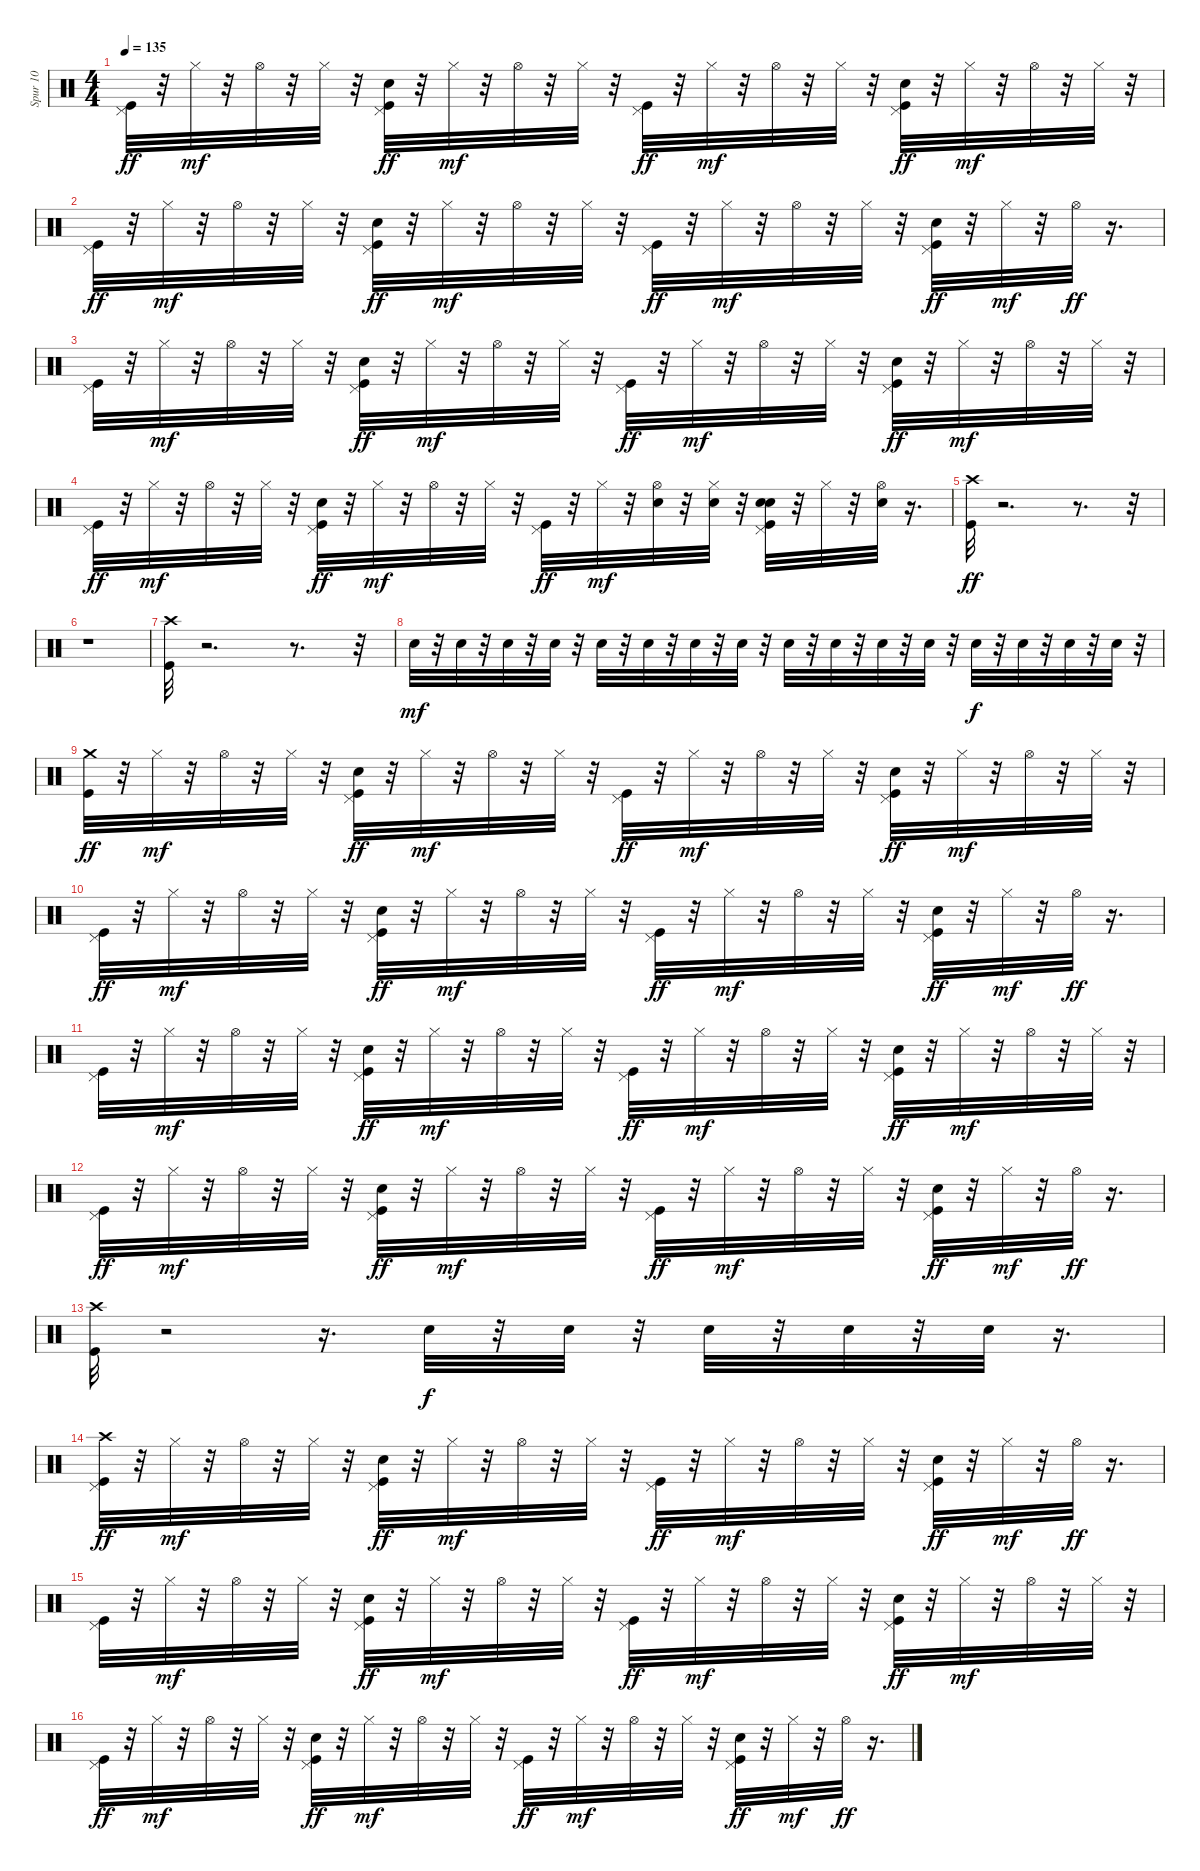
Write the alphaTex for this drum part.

\track ("Spur 10" "Spur 10") {instrument percussion}
\staff {score}
\articulation defaults
\ts (4 4)
\tempo 135
\clef neutral
\ks c
("Kick (hit)" "Pedal Hi-Hat (hit)").32{dy ff} r.32 "Hi-Hat (closed)".32{dy mf} r.32 "Hi-Hat (open)".32 r.32 "Hi-Hat (closed)".32 r.32 ("Kick (hit)" "Hand Clap (hit)" "Pedal Hi-Hat (hit)").32{dy ff} r.32 "Hi-Hat (closed)".32{dy mf} r.32 "Hi-Hat (open)".32 r.32 "Hi-Hat (closed)".32 r.32 ("Kick (hit)" "Pedal Hi-Hat (hit)").32{dy ff} r.32 "Hi-Hat (closed)".32{dy mf} r.32 "Hi-Hat (open)".32 r.32 "Hi-Hat (closed)".32 r.32 ("Kick (hit)" "Hand Clap (hit)" "Pedal Hi-Hat (hit)").32{dy ff} r.32 "Hi-Hat (closed)".32{dy mf} r.32 "Hi-Hat (open)".32 r.32 "Hi-Hat (closed)".32 r.32 |
("Kick (hit)" "Pedal Hi-Hat (hit)").32{dy ff} r.32 "Hi-Hat (closed)".32{dy mf} r.32 "Hi-Hat (open)".32 r.32 "Hi-Hat (closed)".32 r.32 ("Kick (hit)" "Hand Clap (hit)" "Pedal Hi-Hat (hit)").32{dy ff} r.32 "Hi-Hat (closed)".32{dy mf} r.32 "Hi-Hat (open)".32 r.32 "Hi-Hat (closed)".32 r.32 ("Kick (hit)" "Pedal Hi-Hat (hit)").32{dy ff} r.32 "Hi-Hat (closed)".32{dy mf} r.32 "Hi-Hat (open)".32 r.32 "Hi-Hat (closed)".32 r.32 ("Kick (hit)" "Hand Clap (hit)" "Pedal Hi-Hat (hit)").32{dy ff} r.32 "Hi-Hat (closed)".32{dy mf} r.32 "Hi-Hat (open)".32{dy ff} r.16{d} |
("Kick (hit)" "Pedal Hi-Hat (hit)").32 r.32 "Hi-Hat (closed)".32{dy mf} r.32 "Hi-Hat (open)".32 r.32 "Hi-Hat (closed)".32 r.32 ("Kick (hit)" "Hand Clap (hit)" "Pedal Hi-Hat (hit)").32{dy ff} r.32 "Hi-Hat (closed)".32{dy mf} r.32 "Hi-Hat (open)".32 r.32 "Hi-Hat (closed)".32 r.32 ("Kick (hit)" "Pedal Hi-Hat (hit)").32{dy ff} r.32 "Hi-Hat (closed)".32{dy mf} r.32 "Hi-Hat (open)".32 r.32 "Hi-Hat (closed)".32 r.32 ("Kick (hit)" "Hand Clap (hit)" "Pedal Hi-Hat (hit)").32{dy ff} r.32 "Hi-Hat (closed)".32{dy mf} r.32 "Hi-Hat (open)".32 r.32 "Hi-Hat (closed)".32 r.32 |
("Kick (hit)" "Pedal Hi-Hat (hit)").32{dy ff} r.32 "Hi-Hat (closed)".32{dy mf} r.32 "Hi-Hat (open)".32 r.32 "Hi-Hat (closed)".32 r.32 ("Kick (hit)" "Hand Clap (hit)" "Pedal Hi-Hat (hit)").32{dy ff} r.32 "Hi-Hat (closed)".32{dy mf} r.32 "Hi-Hat (open)".32 r.32 "Hi-Hat (closed)".32 r.32 ("Kick (hit)" "Pedal Hi-Hat (hit)").32{dy ff} r.32 "Hi-Hat (closed)".32{dy mf} r.32 ("Hi-Hat (open)" "Snare (hit) 2").32 r.32 ("Hi-Hat (closed)" "Snare (hit) 2").32 r.32 ("Kick (hit)" "Hand Clap (hit)" "Pedal Hi-Hat (hit)" "Snare (hit) 2").32 r.32 "Hi-Hat (closed)".32 r.32 ("Hi-Hat (open)" "Snare (hit) 2").32 r.16{d} |
("Crash high (hit)" "Kick (hit)").32{dy ff} r.2{d} r.8{d} r.32 |
r.1 |
("Kick (hit)" "Crash high (hit)").32 r.2{d} r.8{d} r.32 |
"Snare (hit) 2".32{dy mf} r.32 "Snare (hit) 2".32 r.32 "Snare (hit) 2".32 r.32 "Snare (hit) 2".32 r.32 "Snare (hit) 2".32 r.32 "Snare (hit) 2".32 r.32 "Snare (hit) 2".32 r.32 "Snare (hit) 2".32 r.32 "Snare (hit) 2".32 r.32 "Snare (hit) 2".32 r.32 "Snare (hit) 2".32 r.32 "Snare (hit) 2".32 r.32 "Snare (hit) 2".32{dy f} r.32 "Snare (hit) 2".32 r.32 "Snare (hit) 2".32 r.32 "Snare (hit) 2".32 r.32 |
("Kick (hit)" "Crash medium (hit)").32{dy ff} r.32 "Hi-Hat (closed)".32{dy mf} r.32 "Hi-Hat (open)".32 r.32 "Hi-Hat (closed)".32 r.32 ("Kick (hit)" "Hand Clap (hit)" "Pedal Hi-Hat (hit)").32{dy ff} r.32 "Hi-Hat (closed)".32{dy mf} r.32 "Hi-Hat (open)".32 r.32 "Hi-Hat (closed)".32 r.32 ("Kick (hit)" "Pedal Hi-Hat (hit)").32{dy ff} r.32 "Hi-Hat (closed)".32{dy mf} r.32 "Hi-Hat (open)".32 r.32 "Hi-Hat (closed)".32 r.32 ("Kick (hit)" "Hand Clap (hit)" "Pedal Hi-Hat (hit)").32{dy ff} r.32 "Hi-Hat (closed)".32{dy mf} r.32 "Hi-Hat (open)".32 r.32 "Hi-Hat (closed)".32 r.32 |
("Kick (hit)" "Pedal Hi-Hat (hit)").32{dy ff} r.32 "Hi-Hat (closed)".32{dy mf} r.32 "Hi-Hat (open)".32 r.32 "Hi-Hat (closed)".32 r.32 ("Kick (hit)" "Hand Clap (hit)" "Pedal Hi-Hat (hit)").32{dy ff} r.32 "Hi-Hat (closed)".32{dy mf} r.32 "Hi-Hat (open)".32 r.32 "Hi-Hat (closed)".32 r.32 ("Kick (hit)" "Pedal Hi-Hat (hit)").32{dy ff} r.32 "Hi-Hat (closed)".32{dy mf} r.32 "Hi-Hat (open)".32 r.32 "Hi-Hat (closed)".32 r.32 ("Kick (hit)" "Hand Clap (hit)" "Pedal Hi-Hat (hit)").32{dy ff} r.32 "Hi-Hat (closed)".32{dy mf} r.32 "Hi-Hat (open)".32{dy ff} r.16{d} |
("Kick (hit)" "Pedal Hi-Hat (hit)").32 r.32 "Hi-Hat (closed)".32{dy mf} r.32 "Hi-Hat (open)".32 r.32 "Hi-Hat (closed)".32 r.32 ("Kick (hit)" "Hand Clap (hit)" "Pedal Hi-Hat (hit)").32{dy ff} r.32 "Hi-Hat (closed)".32{dy mf} r.32 "Hi-Hat (open)".32 r.32 "Hi-Hat (closed)".32 r.32 ("Kick (hit)" "Pedal Hi-Hat (hit)").32{dy ff} r.32 "Hi-Hat (closed)".32{dy mf} r.32 "Hi-Hat (open)".32 r.32 "Hi-Hat (closed)".32 r.32 ("Kick (hit)" "Hand Clap (hit)" "Pedal Hi-Hat (hit)").32{dy ff} r.32 "Hi-Hat (closed)".32{dy mf} r.32 "Hi-Hat (open)".32 r.32 "Hi-Hat (closed)".32 r.32 |
("Kick (hit)" "Pedal Hi-Hat (hit)").32{dy ff} r.32 "Hi-Hat (closed)".32{dy mf} r.32 "Hi-Hat (open)".32 r.32 "Hi-Hat (closed)".32 r.32 ("Kick (hit)" "Hand Clap (hit)" "Pedal Hi-Hat (hit)").32{dy ff} r.32 "Hi-Hat (closed)".32{dy mf} r.32 "Hi-Hat (open)".32 r.32 "Hi-Hat (closed)".32 r.32 ("Kick (hit)" "Pedal Hi-Hat (hit)").32{dy ff} r.32 "Hi-Hat (closed)".32{dy mf} r.32 "Hi-Hat (open)".32 r.32 "Hi-Hat (closed)".32 r.32 ("Kick (hit)" "Hand Clap (hit)" "Pedal Hi-Hat (hit)").32{dy ff} r.32 "Hi-Hat (closed)".32{dy mf} r.32 "Hi-Hat (open)".32{dy ff} r.16{d} |
("Crash high (hit)" "Kick (hit)").32 r.2 r.16{d} "Snare (hit) 2".32{dy f} r.32 "Snare (hit) 2".32 r.32 "Snare (hit) 2".32 r.32 "Snare (hit) 2".32 r.32 "Snare (hit) 2".32 r.16{d} |
("Crash high (hit)" "Kick (hit)" "Pedal Hi-Hat (hit)").32{dy ff} r.32 "Hi-Hat (closed)".32{dy mf} r.32 "Hi-Hat (open)".32 r.32 "Hi-Hat (closed)".32 r.32 ("Kick (hit)" "Hand Clap (hit)" "Pedal Hi-Hat (hit)").32{dy ff} r.32 "Hi-Hat (closed)".32{dy mf} r.32 "Hi-Hat (open)".32 r.32 "Hi-Hat (closed)".32 r.32 ("Kick (hit)" "Pedal Hi-Hat (hit)").32{dy ff} r.32 "Hi-Hat (closed)".32{dy mf} r.32 "Hi-Hat (open)".32 r.32 "Hi-Hat (closed)".32 r.32 ("Kick (hit)" "Hand Clap (hit)" "Pedal Hi-Hat (hit)").32{dy ff} r.32 "Hi-Hat (closed)".32{dy mf} r.32 "Hi-Hat (open)".32{dy ff} r.16{d} |
("Kick (hit)" "Pedal Hi-Hat (hit)").32 r.32 "Hi-Hat (closed)".32{dy mf} r.32 "Hi-Hat (open)".32 r.32 "Hi-Hat (closed)".32 r.32 ("Kick (hit)" "Hand Clap (hit)" "Pedal Hi-Hat (hit)").32{dy ff} r.32 "Hi-Hat (closed)".32{dy mf} r.32 "Hi-Hat (open)".32 r.32 "Hi-Hat (closed)".32 r.32 ("Kick (hit)" "Pedal Hi-Hat (hit)").32{dy ff} r.32 "Hi-Hat (closed)".32{dy mf} r.32 "Hi-Hat (open)".32 r.32 "Hi-Hat (closed)".32 r.32 ("Kick (hit)" "Hand Clap (hit)" "Pedal Hi-Hat (hit)").32{dy ff} r.32 "Hi-Hat (closed)".32{dy mf} r.32 "Hi-Hat (open)".32 r.32 "Hi-Hat (closed)".32 r.32 |
("Kick (hit)" "Pedal Hi-Hat (hit)").32{dy ff} r.32 "Hi-Hat (closed)".32{dy mf} r.32 "Hi-Hat (open)".32 r.32 "Hi-Hat (closed)".32 r.32 ("Kick (hit)" "Hand Clap (hit)" "Pedal Hi-Hat (hit)").32{dy ff} r.32 "Hi-Hat (closed)".32{dy mf} r.32 "Hi-Hat (open)".32 r.32 "Hi-Hat (closed)".32 r.32 ("Kick (hit)" "Pedal Hi-Hat (hit)").32{dy ff} r.32 "Hi-Hat (closed)".32{dy mf} r.32 "Hi-Hat (open)".32 r.32 "Hi-Hat (closed)".32 r.32 ("Kick (hit)" "Hand Clap (hit)" "Pedal Hi-Hat (hit)").32{dy ff} r.32 "Hi-Hat (closed)".32{dy mf} r.32 "Hi-Hat (open)".32{dy ff} r.16{d}
